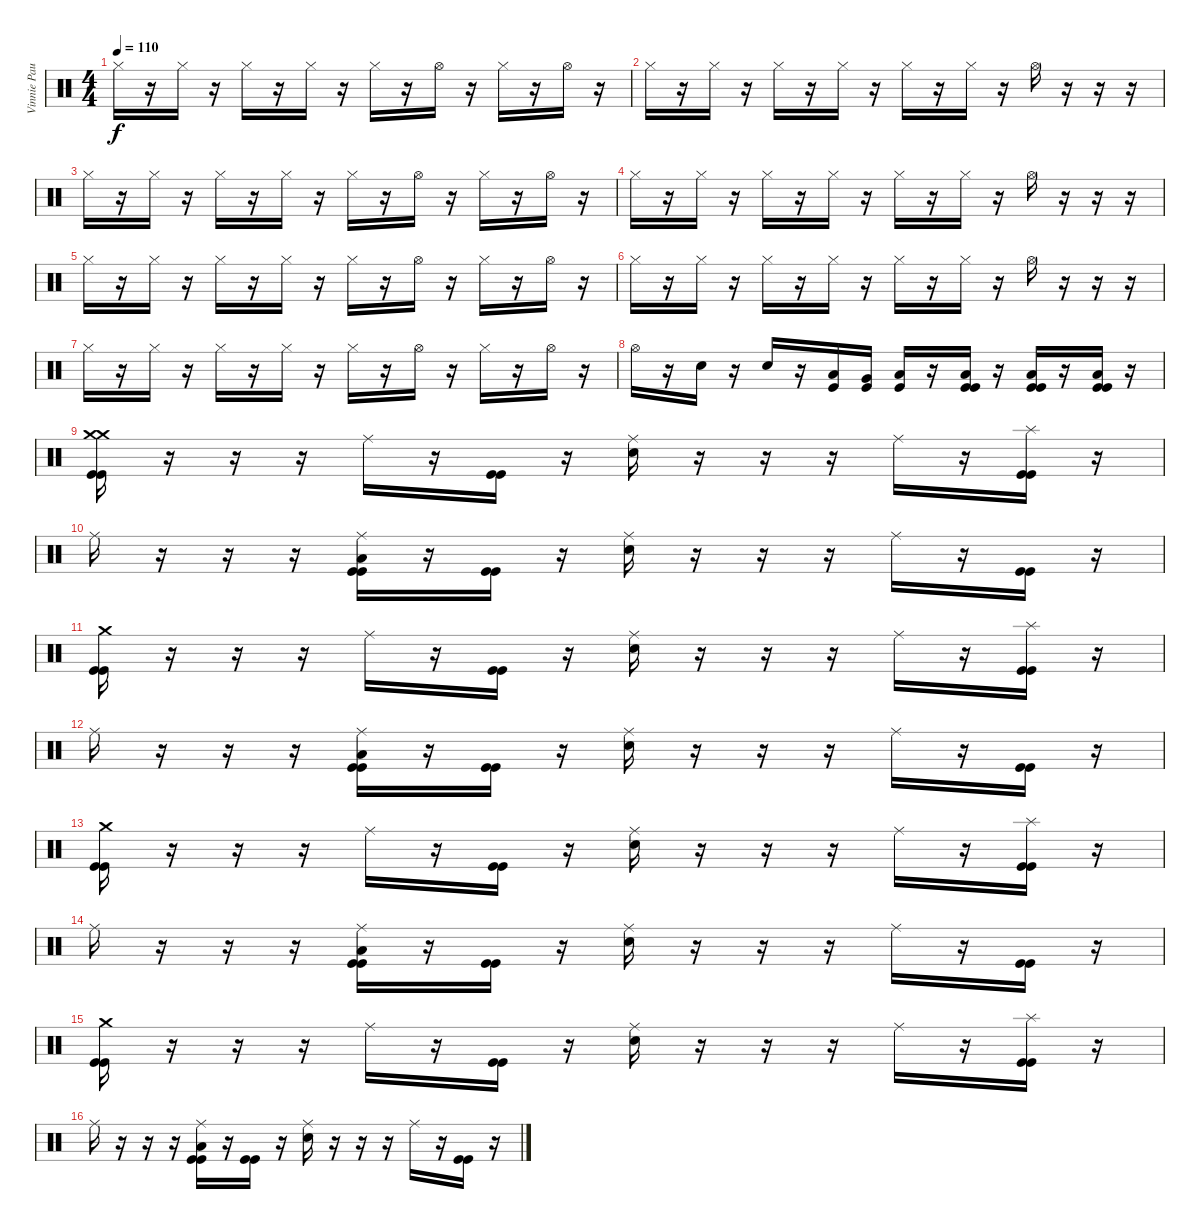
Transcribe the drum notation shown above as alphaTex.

\track ("Vinnie Paul " "Vinnie Pau") {instrument percussion}
\staff {score}
\articulation defaults
\ts (4 4)
\tempo 110
\clef neutral
\ks c "Hi-Hat (closed)".16{dy f}
r.16 "Hi-Hat (closed)".16 r.16 "Hi-Hat (closed)".16 r.16 "Hi-Hat (closed)".16 r.16 "Hi-Hat (closed)".16 r.16 "Hi-Hat (open)".16 r.16 "Hi-Hat (closed)".16 r.16 "Hi-Hat (open)".16 r.16 |
"Hi-Hat (closed)".16 r.16 "Hi-Hat (closed)".16 r.16 "Hi-Hat (closed)".16 r.16 "Hi-Hat (closed)".16 r.16 "Hi-Hat (closed)".16 r.16 "Hi-Hat (closed)".16 r.16 "Hi-Hat (open)".16 r.16 r.16 r.16 |
"Hi-Hat (closed)".16 r.16 "Hi-Hat (closed)".16 r.16 "Hi-Hat (closed)".16 r.16 "Hi-Hat (closed)".16 r.16 "Hi-Hat (closed)".16 r.16 "Hi-Hat (open)".16 r.16 "Hi-Hat (closed)".16 r.16 "Hi-Hat (open)".16 r.16 |
"Hi-Hat (closed)".16 r.16 "Hi-Hat (closed)".16 r.16 "Hi-Hat (closed)".16 r.16 "Hi-Hat (closed)".16 r.16 "Hi-Hat (closed)".16 r.16 "Hi-Hat (closed)".16 r.16 "Hi-Hat (open)".16 r.16 r.16 r.16 |
"Hi-Hat (closed)".16 r.16 "Hi-Hat (closed)".16 r.16 "Hi-Hat (closed)".16 r.16 "Hi-Hat (closed)".16 r.16 "Hi-Hat (closed)".16 r.16 "Hi-Hat (open)".16 r.16 "Hi-Hat (closed)".16 r.16 "Hi-Hat (open)".16 r.16 |
"Hi-Hat (closed)".16 r.16 "Hi-Hat (closed)".16 r.16 "Hi-Hat (closed)".16 r.16 "Hi-Hat (closed)".16 r.16 "Hi-Hat (closed)".16 r.16 "Hi-Hat (closed)".16 r.16 "Hi-Hat (open)".16 r.16 r.16 r.16 |
"Hi-Hat (closed)".16 r.16 "Hi-Hat (closed)".16 r.16 "Hi-Hat (closed)".16 r.16 "Hi-Hat (closed)".16 r.16 "Hi-Hat (closed)".16 r.16 "Hi-Hat (open)".16 r.16 "Hi-Hat (closed)".16 r.16 "Hi-Hat (open)".16 r.16 |
"Hi-Hat (open)".16 r.16 "Snare (hit) 2".16 r.16 "Snare (hit) 2".16 r.16 ("Low Tom (hit)" "Kick (hit)").16 ("Very Low Tom (hit)" "Kick (hit)").16 ("Low Floor Tom (hit)" "Kick (hit)").16 r.16 ("Low Floor Tom (hit)" "Kick (hit)" "Kick (hit)").16 r.16 ("Low Floor Tom (hit)" "Kick (hit)" "Kick (hit)").16 r.16 ("Low Floor Tom (hit)" "Kick (hit)" "Kick (hit)").16 r.16 |
("Crash medium (hit)" "Crash medium (hit)" "Kick (hit)" "Kick (hit)").16 r.16 r.16 r.16 "Ride (middle)".16 r.16 ("Kick (hit)" "Kick (hit)").16 r.16 ("Ride (middle)" "Snare (hit) 2").16 r.16 r.16 r.16 "Ride (middle)".16 r.16 ("Splash (hit)" "Kick (hit)" "Kick (hit)").16 r.16 |
"Ride (middle)".16 r.16 r.16 r.16 ("Ride (middle)" "Low Tom (hit)" "Kick (hit)" "Kick (hit)").16 r.16 ("Kick (hit)" "Kick (hit)").16 r.16 ("Ride (middle)" "Snare (hit) 2").16 r.16 r.16 r.16 "Ride (middle)".16 r.16 ("Kick (hit)" "Kick (hit)").16 r.16 |
("Crash medium (hit)" "Kick (hit)" "Kick (hit)").16 r.16 r.16 r.16 "Ride (middle)".16 r.16 ("Kick (hit)" "Kick (hit)").16 r.16 ("Ride (middle)" "Snare (hit) 2").16 r.16 r.16 r.16 "Ride (middle)".16 r.16 ("Splash (hit)" "Kick (hit)" "Kick (hit)").16 r.16 |
"Ride (middle)".16 r.16 r.16 r.16 ("Ride (middle)" "Low Tom (hit)" "Kick (hit)" "Kick (hit)").16 r.16 ("Kick (hit)" "Kick (hit)").16 r.16 ("Ride (middle)" "Snare (hit) 2").16 r.16 r.16 r.16 "Ride (middle)".16 r.16 ("Kick (hit)" "Kick (hit)").16 r.16 |
("Crash medium (hit)" "Kick (hit)" "Kick (hit)").16 r.16 r.16 r.16 "Ride (middle)".16 r.16 ("Kick (hit)" "Kick (hit)").16 r.16 ("Ride (middle)" "Snare (hit) 2").16 r.16 r.16 r.16 "Ride (middle)".16 r.16 ("Splash (hit)" "Kick (hit)" "Kick (hit)").16 r.16 |
"Ride (middle)".16 r.16 r.16 r.16 ("Ride (middle)" "Low Tom (hit)" "Kick (hit)" "Kick (hit)").16 r.16 ("Kick (hit)" "Kick (hit)").16 r.16 ("Ride (middle)" "Snare (hit) 2").16 r.16 r.16 r.16 "Ride (middle)".16 r.16 ("Kick (hit)" "Kick (hit)").16 r.16 |
("Crash medium (hit)" "Kick (hit)" "Kick (hit)").16 r.16 r.16 r.16 "Ride (middle)".16 r.16 ("Kick (hit)" "Kick (hit)").16 r.16 ("Ride (middle)" "Snare (hit) 2").16 r.16 r.16 r.16 "Ride (middle)".16 r.16 ("Splash (hit)" "Kick (hit)" "Kick (hit)").16 r.16 |
"Ride (middle)".16 r.16 r.16 r.16 ("Ride (middle)" "Low Tom (hit)" "Kick (hit)" "Kick (hit)").16 r.16 ("Kick (hit)" "Kick (hit)").16 r.16 ("Ride (middle)" "Snare (hit) 2").16 r.16 r.16 r.16 "Ride (middle)".16 r.16 ("Kick (hit)" "Kick (hit)").16 r.16
